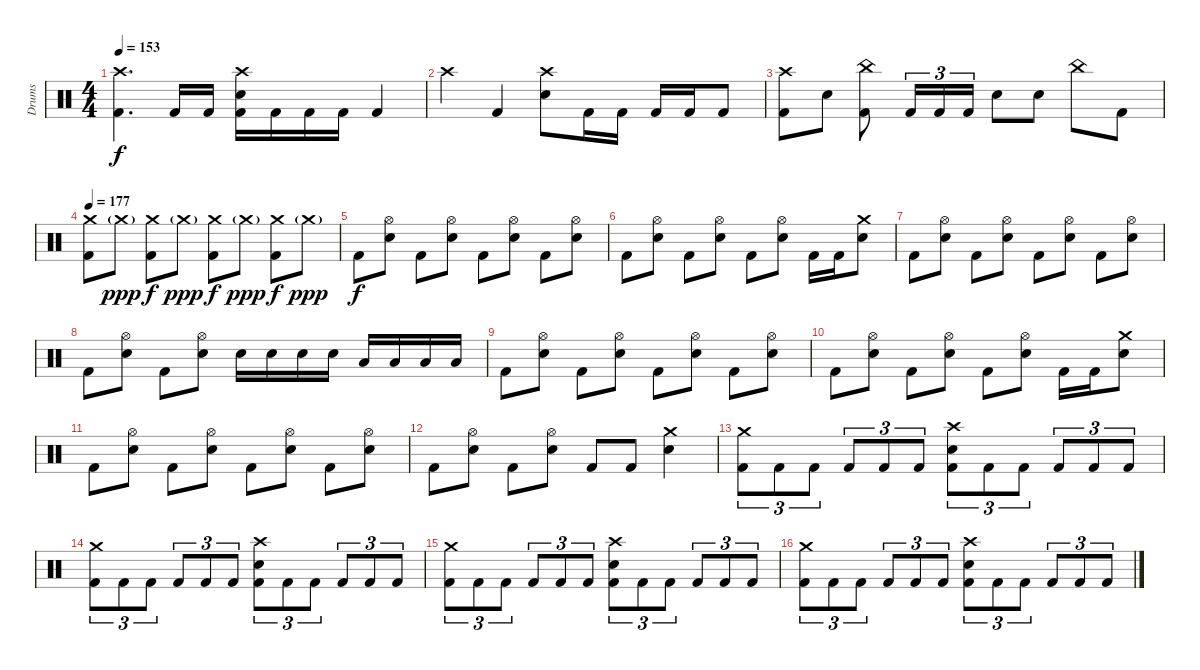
\track ("Drums" "Drums") {instrument percussion}
\staff
\articulation defaults
\ts (4 4)
\tempo 153
\clef neutral
\ks c
("Crash high (hit)" "Kick (hit) 2").4{d dy f} "Kick (hit) 2".16 "Kick (hit) 2".16 ("Crash high (hit)" "Electric Snare (hit)" "Kick (hit) 2").16 "Kick (hit) 2".16 "Kick (hit) 2".16 "Kick (hit) 2".16 "Kick (hit) 2".4 |
"Crash high (hit)".4 "Kick (hit) 2".4 ("Crash high (hit)" "Electric Snare (hit)").8 "Kick (hit) 2".16 "Kick (hit) 2".16 "Kick (hit) 2".16 "Kick (hit) 2".16 "Kick (hit) 2".8 |
("Crash high (hit)" "Kick (hit) 2").8 "Electric Snare (hit)".8 ("China (hit)" "Kick (hit) 2").8 "Kick (hit) 2".16{tu (3 2)} "Kick (hit) 2".16{tu (3 2)} "Kick (hit) 2".16{tu (3 2)} "Electric Snare (hit)".8 "Electric Snare (hit)".8 "China (hit)".8 "Kick (hit) 2".8 |
\tempo 177
("Crash medium (hit)" "Kick (hit) 2").8 "Crash medium (hit)"{g}.8{dy ppp} ("Crash medium (hit)" "Kick (hit) 2").8{dy f} "Crash medium (hit)"{g}.8{dy ppp} ("Crash medium (hit)" "Kick (hit) 2").8{dy f} "Crash medium (hit)"{g}.8{dy ppp} ("Crash medium (hit)" "Kick (hit) 2").8{dy f} "Crash medium (hit)"{g}.8{dy ppp} |
"Kick (hit) 2".8{dy f} ("Hi-Hat (open)" "Electric Snare (hit)").8 "Kick (hit) 2".8 ("Hi-Hat (open)" "Electric Snare (hit)").8 "Kick (hit) 2".8 ("Hi-Hat (open)" "Electric Snare (hit)").8 "Kick (hit) 2".8 ("Hi-Hat (open)" "Electric Snare (hit)").8 |
"Kick (hit) 2".8 ("Hi-Hat (open)" "Electric Snare (hit)").8 "Kick (hit) 2".8 ("Hi-Hat (open)" "Electric Snare (hit)").8 "Kick (hit) 2".8 ("Hi-Hat (open)" "Electric Snare (hit)").8 "Kick (hit) 2".16 "Kick (hit) 2".16 ("Crash medium (hit)" "Electric Snare (hit)").8 |
"Kick (hit) 2".8 ("Hi-Hat (open)" "Electric Snare (hit)").8 "Kick (hit) 2".8 ("Hi-Hat (open)" "Electric Snare (hit)").8 "Kick (hit) 2".8 ("Hi-Hat (open)" "Electric Snare (hit)").8 "Kick (hit) 2".8 ("Hi-Hat (open)" "Electric Snare (hit)").8 |
"Kick (hit) 2".8 ("Hi-Hat (open)" "Electric Snare (hit)").8 "Kick (hit) 2".8 ("Hi-Hat (open)" "Electric Snare (hit)").8 "Electric Snare (hit)".16 "Electric Snare (hit)".16 "Electric Snare (hit)".16 "Electric Snare (hit)".16 "Low Floor Tom (hit)".16 "Low Floor Tom (hit)".16 "Low Floor Tom (hit)".16 "Low Floor Tom (hit)".16 |
"Kick (hit) 2".8 ("Hi-Hat (open)" "Electric Snare (hit)").8 "Kick (hit) 2".8 ("Hi-Hat (open)" "Electric Snare (hit)").8 "Kick (hit) 2".8 ("Hi-Hat (open)" "Electric Snare (hit)").8 "Kick (hit) 2".8 ("Hi-Hat (open)" "Electric Snare (hit)").8 |
"Kick (hit) 2".8 ("Hi-Hat (open)" "Electric Snare (hit)").8 "Kick (hit) 2".8 ("Hi-Hat (open)" "Electric Snare (hit)").8 "Kick (hit) 2".8 ("Hi-Hat (open)" "Electric Snare (hit)").8 "Kick (hit) 2".16 "Kick (hit) 2".16 ("Crash medium (hit)" "Electric Snare (hit)").8 |
"Kick (hit) 2".8 ("Hi-Hat (open)" "Electric Snare (hit)").8 "Kick (hit) 2".8 ("Hi-Hat (open)" "Electric Snare (hit)").8 "Kick (hit) 2".8 ("Hi-Hat (open)" "Electric Snare (hit)").8 "Kick (hit) 2".8 ("Hi-Hat (open)" "Electric Snare (hit)").8 |
"Kick (hit) 2".8 ("Hi-Hat (open)" "Electric Snare (hit)").8 "Kick (hit) 2".8 ("Hi-Hat (open)" "Electric Snare (hit)").8 "Kick (hit) 2".8 "Kick (hit) 2".8 ("Crash medium (hit)" "Electric Snare (hit)").4 |
("Crash medium (hit)" "Kick (hit) 2").8{tu (3 2)} "Kick (hit) 2".8{tu (3 2)} "Kick (hit) 2".8{tu (3 2)} "Kick (hit) 2".8{tu (3 2)} "Kick (hit) 2".8{tu (3 2)} "Kick (hit) 2".8{tu (3 2)} ("Crash high (hit)" "Electric Snare (hit)" "Kick (hit) 2").8{tu (3 2)} "Kick (hit) 2".8{tu (3 2)} "Kick (hit) 2".8{tu (3 2)} "Kick (hit) 2".8{tu (3 2)} "Kick (hit) 2".8{tu (3 2)} "Kick (hit) 2".8{tu (3 2)} |
("Crash medium (hit)" "Kick (hit) 2").8{tu (3 2)} "Kick (hit) 2".8{tu (3 2)} "Kick (hit) 2".8{tu (3 2)} "Kick (hit) 2".8{tu (3 2)} "Kick (hit) 2".8{tu (3 2)} "Kick (hit) 2".8{tu (3 2)} ("Crash high (hit)" "Electric Snare (hit)" "Kick (hit) 2").8{tu (3 2)} "Kick (hit) 2".8{tu (3 2)} "Kick (hit) 2".8{tu (3 2)} "Kick (hit) 2".8{tu (3 2)} "Kick (hit) 2".8{tu (3 2)} "Kick (hit) 2".8{tu (3 2)} |
("Crash medium (hit)" "Kick (hit) 2").8{tu (3 2)} "Kick (hit) 2".8{tu (3 2)} "Kick (hit) 2".8{tu (3 2)} "Kick (hit) 2".8{tu (3 2)} "Kick (hit) 2".8{tu (3 2)} "Kick (hit) 2".8{tu (3 2)} ("Crash high (hit)" "Electric Snare (hit)" "Kick (hit) 2").8{tu (3 2)} "Kick (hit) 2".8{tu (3 2)} "Kick (hit) 2".8{tu (3 2)} "Kick (hit) 2".8{tu (3 2)} "Kick (hit) 2".8{tu (3 2)} "Kick (hit) 2".8{tu (3 2)} |
("Crash medium (hit)" "Kick (hit) 2").8{tu (3 2)} "Kick (hit) 2".8{tu (3 2)} "Kick (hit) 2".8{tu (3 2)} "Kick (hit) 2".8{tu (3 2)} "Kick (hit) 2".8{tu (3 2)} "Kick (hit) 2".8{tu (3 2)} ("Crash high (hit)" "Electric Snare (hit)" "Kick (hit) 2").8{tu (3 2)} "Kick (hit) 2".8{tu (3 2)} "Kick (hit) 2".8{tu (3 2)} "Kick (hit) 2".8{tu (3 2)} "Kick (hit) 2".8{tu (3 2)} "Kick (hit) 2".8{tu (3 2)}
